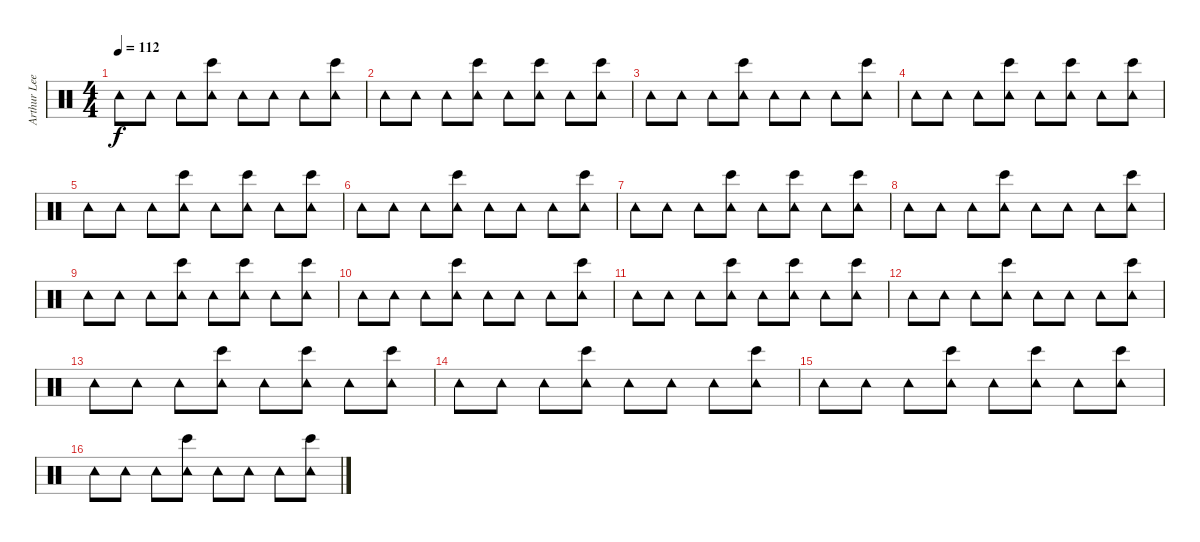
\track ("Arthur Lee (percussion)" "Arthur Lee") {instrument percussion}
\staff {score}
\articulation defaults
\ts (4 4)
\tempo 112
\clef neutral
\ks c "Tambourine (hit)".8{dy f} "Tambourine (hit)".8 "Tambourine (hit)".8
("Tambourine (hit)" "Bongo High (hit)").8 "Tambourine (hit)".8 "Tambourine (hit)".8 "Tambourine (hit)".8 ("Tambourine (hit)" "Bongo High (hit)").8 |
"Tambourine (hit)".8 "Tambourine (hit)".8 "Tambourine (hit)".8 ("Tambourine (hit)" "Bongo High (hit)").8 "Tambourine (hit)".8 ("Tambourine (hit)" "Bongo High (hit)").8 "Tambourine (hit)".8 ("Tambourine (hit)" "Bongo High (hit)").8 |
"Tambourine (hit)".8 "Tambourine (hit)".8 "Tambourine (hit)".8 ("Tambourine (hit)" "Bongo High (hit)").8 "Tambourine (hit)".8 "Tambourine (hit)".8 "Tambourine (hit)".8 ("Tambourine (hit)" "Bongo High (hit)").8 |
"Tambourine (hit)".8 "Tambourine (hit)".8 "Tambourine (hit)".8 ("Tambourine (hit)" "Bongo High (hit)").8 "Tambourine (hit)".8 ("Tambourine (hit)" "Bongo High (hit)").8 "Tambourine (hit)".8 ("Tambourine (hit)" "Bongo High (hit)").8 |
"Tambourine (hit)".8 "Tambourine (hit)".8 "Tambourine (hit)".8 ("Tambourine (hit)" "Bongo High (hit)").8 "Tambourine (hit)".8 ("Tambourine (hit)" "Bongo High (hit)").8 "Tambourine (hit)".8 ("Tambourine (hit)" "Bongo High (hit)").8 |
"Tambourine (hit)".8 "Tambourine (hit)".8 "Tambourine (hit)".8 ("Tambourine (hit)" "Bongo High (hit)").8 "Tambourine (hit)".8 "Tambourine (hit)".8 "Tambourine (hit)".8 ("Tambourine (hit)" "Bongo High (hit)").8 |
"Tambourine (hit)".8 "Tambourine (hit)".8 "Tambourine (hit)".8 ("Tambourine (hit)" "Bongo High (hit)").8 "Tambourine (hit)".8 ("Tambourine (hit)" "Bongo High (hit)").8 "Tambourine (hit)".8 ("Tambourine (hit)" "Bongo High (hit)").8 |
"Tambourine (hit)".8 "Tambourine (hit)".8 "Tambourine (hit)".8 ("Tambourine (hit)" "Bongo High (hit)").8 "Tambourine (hit)".8 "Tambourine (hit)".8 "Tambourine (hit)".8 ("Tambourine (hit)" "Bongo High (hit)").8 |
"Tambourine (hit)".8 "Tambourine (hit)".8 "Tambourine (hit)".8 ("Tambourine (hit)" "Bongo High (hit)").8 "Tambourine (hit)".8 ("Tambourine (hit)" "Bongo High (hit)").8 "Tambourine (hit)".8 ("Tambourine (hit)" "Bongo High (hit)").8 |
"Tambourine (hit)".8 "Tambourine (hit)".8 "Tambourine (hit)".8 ("Tambourine (hit)" "Bongo High (hit)").8 "Tambourine (hit)".8 "Tambourine (hit)".8 "Tambourine (hit)".8 ("Tambourine (hit)" "Bongo High (hit)").8 |
"Tambourine (hit)".8 "Tambourine (hit)".8 "Tambourine (hit)".8 ("Tambourine (hit)" "Bongo High (hit)").8 "Tambourine (hit)".8 ("Tambourine (hit)" "Bongo High (hit)").8 "Tambourine (hit)".8 ("Tambourine (hit)" "Bongo High (hit)").8 |
"Tambourine (hit)".8 "Tambourine (hit)".8 "Tambourine (hit)".8 ("Tambourine (hit)" "Bongo High (hit)").8 "Tambourine (hit)".8 "Tambourine (hit)".8 "Tambourine (hit)".8 ("Tambourine (hit)" "Bongo High (hit)").8 |
"Tambourine (hit)".8 "Tambourine (hit)".8 "Tambourine (hit)".8 ("Tambourine (hit)" "Bongo High (hit)").8 "Tambourine (hit)".8 ("Tambourine (hit)" "Bongo High (hit)").8 "Tambourine (hit)".8 ("Tambourine (hit)" "Bongo High (hit)").8 |
"Tambourine (hit)".8 "Tambourine (hit)".8 "Tambourine (hit)".8 ("Tambourine (hit)" "Bongo High (hit)").8 "Tambourine (hit)".8 "Tambourine (hit)".8 "Tambourine (hit)".8 ("Tambourine (hit)" "Bongo High (hit)").8 |
"Tambourine (hit)".8 "Tambourine (hit)".8 "Tambourine (hit)".8 ("Tambourine (hit)" "Bongo High (hit)").8 "Tambourine (hit)".8 ("Tambourine (hit)" "Bongo High (hit)").8 "Tambourine (hit)".8 ("Tambourine (hit)" "Bongo High (hit)").8 |
"Tambourine (hit)".8 "Tambourine (hit)".8 "Tambourine (hit)".8 ("Tambourine (hit)" "Bongo High (hit)").8 "Tambourine (hit)".8 "Tambourine (hit)".8 "Tambourine (hit)".8 ("Tambourine (hit)" "Bongo High (hit)").8
